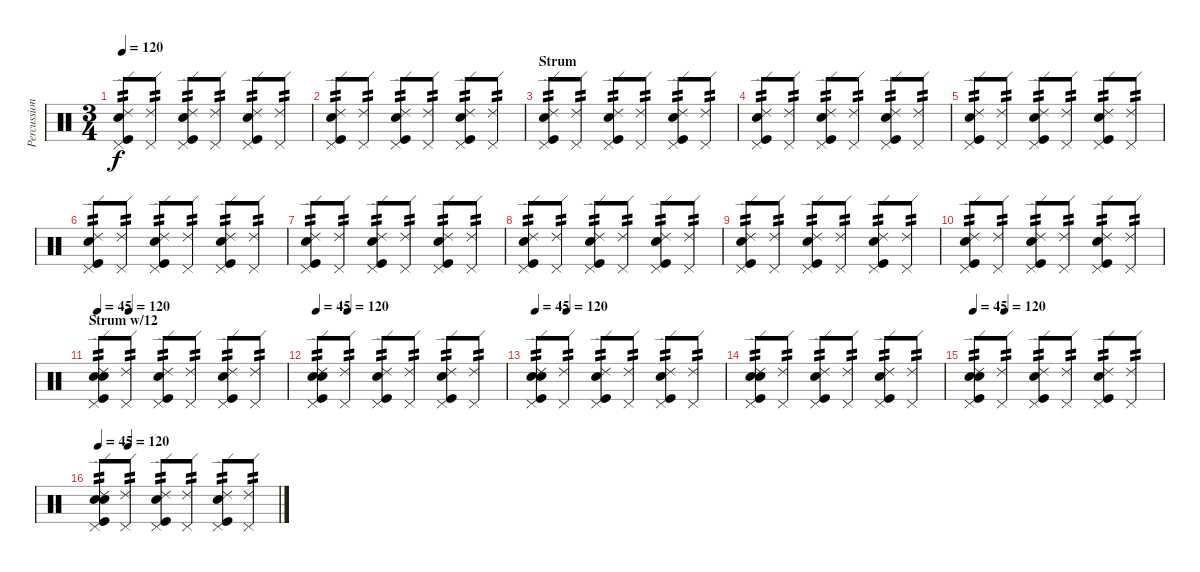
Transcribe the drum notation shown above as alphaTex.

\track ("Percussion" "Percussion") {instrument percussion}
\staff {score}
\articulation defaults
\ts (3 4)
\tempo 120
\clef neutral
\ks c
("Pedal Hi-Hat (hit)" "Kick (hit)" "Electric Snare (hit)" "Ride (edge) 2").8{tp 2 dy f} ("Pedal Hi-Hat (hit)" "Ride (edge) 2").8{tp 2} ("Pedal Hi-Hat (hit)" "Kick (hit)" "Electric Snare (hit)" "Ride (edge) 2").8{tp 2} ("Pedal Hi-Hat (hit)" "Ride (edge) 2").8{tp 2} ("Pedal Hi-Hat (hit)" "Kick (hit)" "Electric Snare (hit)" "Ride (edge) 2").8{tp 2} ("Pedal Hi-Hat (hit)" "Ride (edge) 2").8{tp 2} |
("Pedal Hi-Hat (hit)" "Kick (hit)" "Electric Snare (hit)" "Ride (edge) 2").8{tp 2} ("Pedal Hi-Hat (hit)" "Ride (edge) 2").8{tp 2} ("Pedal Hi-Hat (hit)" "Kick (hit)" "Electric Snare (hit)" "Ride (edge) 2").8{tp 2} ("Pedal Hi-Hat (hit)" "Ride (edge) 2").8{tp 2} ("Pedal Hi-Hat (hit)" "Kick (hit)" "Electric Snare (hit)" "Ride (edge) 2").8{tp 2} ("Pedal Hi-Hat (hit)" "Ride (edge) 2").8{tp 2} |
\section ("" "Strum")
("Pedal Hi-Hat (hit)" "Kick (hit)" "Electric Snare (hit)" "Ride (edge) 2").8{tp 2} ("Pedal Hi-Hat (hit)" "Ride (edge) 2").8{tp 2} ("Pedal Hi-Hat (hit)" "Kick (hit)" "Electric Snare (hit)" "Ride (edge) 2").8{tp 2} ("Pedal Hi-Hat (hit)" "Ride (edge) 2").8{tp 2} ("Pedal Hi-Hat (hit)" "Kick (hit)" "Electric Snare (hit)" "Ride (edge) 2").8{tp 2} ("Pedal Hi-Hat (hit)" "Ride (edge) 2").8{tp 2} |
("Pedal Hi-Hat (hit)" "Kick (hit)" "Electric Snare (hit)" "Ride (edge) 2").8{tp 2} ("Pedal Hi-Hat (hit)" "Ride (edge) 2").8{tp 2} ("Pedal Hi-Hat (hit)" "Kick (hit)" "Electric Snare (hit)" "Ride (edge) 2").8{tp 2} ("Pedal Hi-Hat (hit)" "Ride (edge) 2").8{tp 2} ("Pedal Hi-Hat (hit)" "Kick (hit)" "Electric Snare (hit)" "Ride (edge) 2").8{tp 2} ("Pedal Hi-Hat (hit)" "Ride (edge) 2").8{tp 2} |
("Pedal Hi-Hat (hit)" "Kick (hit)" "Electric Snare (hit)" "Ride (edge) 2").8{tp 2} ("Pedal Hi-Hat (hit)" "Ride (edge) 2").8{tp 2} ("Pedal Hi-Hat (hit)" "Kick (hit)" "Electric Snare (hit)" "Ride (edge) 2").8{tp 2} ("Pedal Hi-Hat (hit)" "Ride (edge) 2").8{tp 2} ("Pedal Hi-Hat (hit)" "Kick (hit)" "Electric Snare (hit)" "Ride (edge) 2").8{tp 2} ("Pedal Hi-Hat (hit)" "Ride (edge) 2").8{tp 2} |
("Pedal Hi-Hat (hit)" "Kick (hit)" "Electric Snare (hit)" "Ride (edge) 2").8{tp 2} ("Pedal Hi-Hat (hit)" "Ride (edge) 2").8{tp 2} ("Pedal Hi-Hat (hit)" "Kick (hit)" "Electric Snare (hit)" "Ride (edge) 2").8{tp 2} ("Pedal Hi-Hat (hit)" "Ride (edge) 2").8{tp 2} ("Pedal Hi-Hat (hit)" "Kick (hit)" "Electric Snare (hit)" "Ride (edge) 2").8{tp 2} ("Pedal Hi-Hat (hit)" "Ride (edge) 2").8{tp 2} |
("Pedal Hi-Hat (hit)" "Kick (hit)" "Electric Snare (hit)" "Ride (edge) 2").8{tp 2} ("Pedal Hi-Hat (hit)" "Ride (edge) 2").8{tp 2} ("Pedal Hi-Hat (hit)" "Kick (hit)" "Electric Snare (hit)" "Ride (edge) 2").8{tp 2} ("Pedal Hi-Hat (hit)" "Ride (edge) 2").8{tp 2} ("Pedal Hi-Hat (hit)" "Kick (hit)" "Electric Snare (hit)" "Ride (edge) 2").8{tp 2} ("Pedal Hi-Hat (hit)" "Ride (edge) 2").8{tp 2} |
("Pedal Hi-Hat (hit)" "Kick (hit)" "Electric Snare (hit)" "Ride (edge) 2").8{tp 2} ("Pedal Hi-Hat (hit)" "Ride (edge) 2").8{tp 2} ("Pedal Hi-Hat (hit)" "Kick (hit)" "Electric Snare (hit)" "Ride (edge) 2").8{tp 2} ("Pedal Hi-Hat (hit)" "Ride (edge) 2").8{tp 2} ("Pedal Hi-Hat (hit)" "Kick (hit)" "Electric Snare (hit)" "Ride (edge) 2").8{tp 2} ("Pedal Hi-Hat (hit)" "Ride (edge) 2").8{tp 2} |
("Pedal Hi-Hat (hit)" "Kick (hit)" "Electric Snare (hit)" "Ride (edge) 2").8{tp 2} ("Pedal Hi-Hat (hit)" "Ride (edge) 2").8{tp 2} ("Pedal Hi-Hat (hit)" "Kick (hit)" "Electric Snare (hit)" "Ride (edge) 2").8{tp 2} ("Pedal Hi-Hat (hit)" "Ride (edge) 2").8{tp 2} ("Pedal Hi-Hat (hit)" "Kick (hit)" "Electric Snare (hit)" "Ride (edge) 2").8{tp 2} ("Pedal Hi-Hat (hit)" "Ride (edge) 2").8{tp 2} |
("Pedal Hi-Hat (hit)" "Kick (hit)" "Electric Snare (hit)" "Ride (edge) 2").8{tp 2} ("Pedal Hi-Hat (hit)" "Ride (edge) 2").8{tp 2} ("Pedal Hi-Hat (hit)" "Kick (hit)" "Electric Snare (hit)" "Ride (edge) 2").8{tp 2} ("Pedal Hi-Hat (hit)" "Ride (edge) 2").8{tp 2} ("Pedal Hi-Hat (hit)" "Kick (hit)" "Electric Snare (hit)" "Ride (edge) 2").8{tp 2} ("Pedal Hi-Hat (hit)" "Ride (edge) 2").8{tp 2} |
\section ("" "Strum w/12")
\tempo 45
\tempo (120 0.16666666666666666)
("Metronome (bell)" "Pedal Hi-Hat (hit)" "Kick (hit)" "Electric Snare (hit)" "Ride (edge) 2").8{tp 2} ("Pedal Hi-Hat (hit)" "Ride (edge) 2").8{tp 2} ("Pedal Hi-Hat (hit)" "Kick (hit)" "Electric Snare (hit)" "Ride (edge) 2").8{tp 2} ("Pedal Hi-Hat (hit)" "Ride (edge) 2").8{tp 2} ("Pedal Hi-Hat (hit)" "Kick (hit)" "Electric Snare (hit)" "Ride (edge) 2").8{tp 2} ("Pedal Hi-Hat (hit)" "Ride (edge) 2").8{tp 2} |
\tempo 45
\tempo (120 0.16666666666666666)
("Metronome (bell)" "Pedal Hi-Hat (hit)" "Kick (hit)" "Electric Snare (hit)" "Ride (edge) 2").8{tp 2} ("Pedal Hi-Hat (hit)" "Ride (edge) 2").8{tp 2} ("Pedal Hi-Hat (hit)" "Kick (hit)" "Electric Snare (hit)" "Ride (edge) 2").8{tp 2} ("Pedal Hi-Hat (hit)" "Ride (edge) 2").8{tp 2} ("Pedal Hi-Hat (hit)" "Kick (hit)" "Electric Snare (hit)" "Ride (edge) 2").8{tp 2} ("Pedal Hi-Hat (hit)" "Ride (edge) 2").8{tp 2} |
\tempo 45
\tempo (120 0.16666666666666666)
("Metronome (bell)" "Pedal Hi-Hat (hit)" "Kick (hit)" "Electric Snare (hit)" "Ride (edge) 2").8{tp 2} ("Pedal Hi-Hat (hit)" "Ride (edge) 2").8{tp 2} ("Pedal Hi-Hat (hit)" "Kick (hit)" "Electric Snare (hit)" "Ride (edge) 2").8{tp 2} ("Pedal Hi-Hat (hit)" "Ride (edge) 2").8{tp 2} ("Pedal Hi-Hat (hit)" "Kick (hit)" "Electric Snare (hit)" "Ride (edge) 2").8{tp 2} ("Pedal Hi-Hat (hit)" "Ride (edge) 2").8{tp 2} |
("Metronome (bell)" "Pedal Hi-Hat (hit)" "Kick (hit)" "Electric Snare (hit)" "Ride (edge) 2").8{tp 2} ("Pedal Hi-Hat (hit)" "Ride (edge) 2").8{tp 2} ("Pedal Hi-Hat (hit)" "Kick (hit)" "Electric Snare (hit)" "Ride (edge) 2").8{tp 2} ("Pedal Hi-Hat (hit)" "Ride (edge) 2").8{tp 2} ("Pedal Hi-Hat (hit)" "Kick (hit)" "Electric Snare (hit)" "Ride (edge) 2").8{tp 2} ("Pedal Hi-Hat (hit)" "Ride (edge) 2").8{tp 2} |
\tempo 45
\tempo (120 0.16666666666666666)
("Metronome (bell)" "Pedal Hi-Hat (hit)" "Kick (hit)" "Electric Snare (hit)" "Ride (edge) 2").8{tp 2} ("Pedal Hi-Hat (hit)" "Ride (edge) 2").8{tp 2} ("Pedal Hi-Hat (hit)" "Kick (hit)" "Electric Snare (hit)" "Ride (edge) 2").8{tp 2} ("Pedal Hi-Hat (hit)" "Ride (edge) 2").8{tp 2} ("Pedal Hi-Hat (hit)" "Kick (hit)" "Electric Snare (hit)" "Ride (edge) 2").8{tp 2} ("Pedal Hi-Hat (hit)" "Ride (edge) 2").8{tp 2} |
\tempo 45
\tempo (120 0.16666666666666666)
("Metronome (bell)" "Pedal Hi-Hat (hit)" "Kick (hit)" "Electric Snare (hit)" "Ride (edge) 2").8{tp 2} ("Pedal Hi-Hat (hit)" "Ride (edge) 2").8{tp 2} ("Pedal Hi-Hat (hit)" "Kick (hit)" "Electric Snare (hit)" "Ride (edge) 2").8{tp 2} ("Pedal Hi-Hat (hit)" "Ride (edge) 2").8{tp 2} ("Pedal Hi-Hat (hit)" "Kick (hit)" "Electric Snare (hit)" "Ride (edge) 2").8{tp 2} ("Pedal Hi-Hat (hit)" "Ride (edge) 2").8{tp 2}
